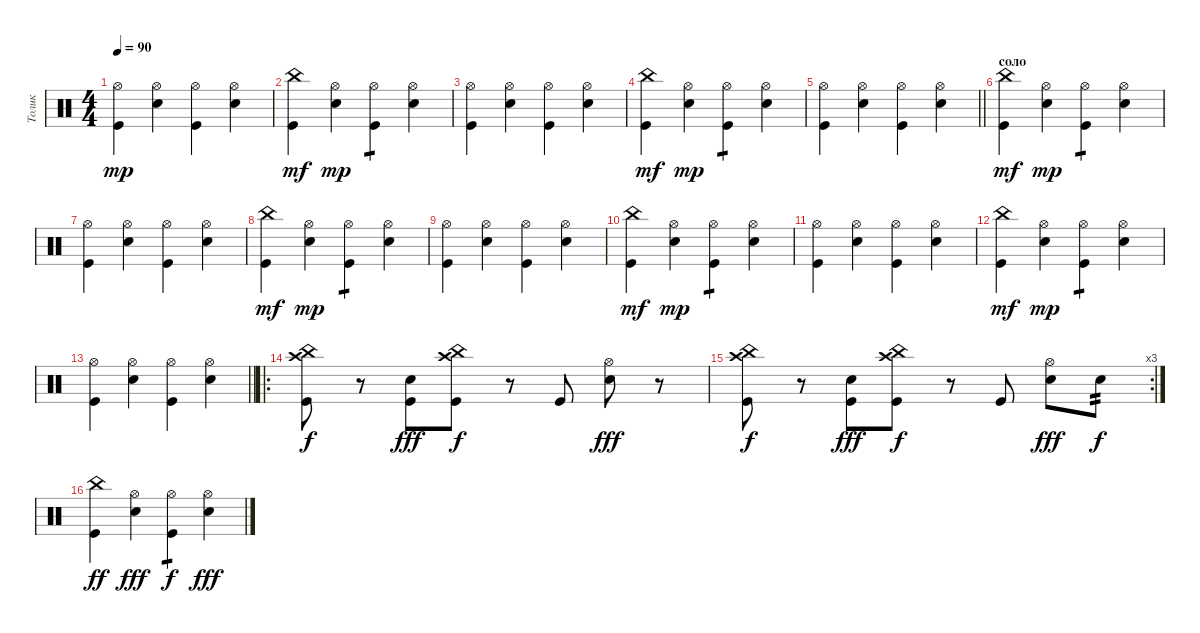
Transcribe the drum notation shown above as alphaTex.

\track ("Толик" "Толик") {instrument percussion}
\staff {score}
\articulation defaults
\ts (4 4)
\tempo 90
\clef neutral
\ks c
("Kick (hit)" "Hi-Hat (open)").4{dy mp} ("Snare (hit) 2" "Hi-Hat (open)").4 ("Kick (hit)" "Hi-Hat (open)").4 ("Snare (hit) 2" "Hi-Hat (open)").4 |
("China (hit)" "Kick (hit)").4{dy mf} ("Snare (hit) 2" "Hi-Hat (open)").4{dy mp} ("Kick (hit)" "Hi-Hat (open)").4{tp 1} ("Snare (hit) 2" "Hi-Hat (open)").4 |
("Kick (hit)" "Hi-Hat (open)").4 ("Snare (hit) 2" "Hi-Hat (open)").4 ("Kick (hit)" "Hi-Hat (open)").4 ("Snare (hit) 2" "Hi-Hat (open)").4 |
("China (hit)" "Kick (hit)").4{dy mf} ("Snare (hit) 2" "Hi-Hat (open)").4{dy mp} ("Kick (hit)" "Hi-Hat (open)").4{tp 1} ("Snare (hit) 2" "Hi-Hat (open)").4 |
\barLineRight lightlight
("Kick (hit)" "Hi-Hat (open)").4 ("Snare (hit) 2" "Hi-Hat (open)").4 ("Kick (hit)" "Hi-Hat (open)").4 ("Snare (hit) 2" "Hi-Hat (open)").4 |
\section ("" "соло")
("China (hit)" "Kick (hit)").4{dy mf} ("Snare (hit) 2" "Hi-Hat (open)").4{dy mp} ("Kick (hit)" "Hi-Hat (open)").4{tp 1} ("Snare (hit) 2" "Hi-Hat (open)").4 |
("Kick (hit)" "Hi-Hat (open)").4 ("Snare (hit) 2" "Hi-Hat (open)").4 ("Kick (hit)" "Hi-Hat (open)").4 ("Snare (hit) 2" "Hi-Hat (open)").4 |
("China (hit)" "Kick (hit)").4{dy mf} ("Snare (hit) 2" "Hi-Hat (open)").4{dy mp} ("Kick (hit)" "Hi-Hat (open)").4{tp 1} ("Snare (hit) 2" "Hi-Hat (open)").4 |
("Kick (hit)" "Hi-Hat (open)").4 ("Snare (hit) 2" "Hi-Hat (open)").4 ("Kick (hit)" "Hi-Hat (open)").4 ("Snare (hit) 2" "Hi-Hat (open)").4 |
("China (hit)" "Kick (hit)").4{dy mf} ("Snare (hit) 2" "Hi-Hat (open)").4{dy mp} ("Kick (hit)" "Hi-Hat (open)").4{tp 1} ("Snare (hit) 2" "Hi-Hat (open)").4 |
("Kick (hit)" "Hi-Hat (open)").4 ("Snare (hit) 2" "Hi-Hat (open)").4 ("Kick (hit)" "Hi-Hat (open)").4 ("Snare (hit) 2" "Hi-Hat (open)").4 |
("China (hit)" "Kick (hit)").4{dy mf} ("Snare (hit) 2" "Hi-Hat (open)").4{dy mp} ("Kick (hit)" "Hi-Hat (open)").4{tp 1} ("Snare (hit) 2" "Hi-Hat (open)").4 |
\barLineRight lightlight
("Kick (hit)" "Hi-Hat (open)").4 ("Snare (hit) 2" "Hi-Hat (open)").4 ("Kick (hit)" "Hi-Hat (open)").4 ("Snare (hit) 2" "Hi-Hat (open)").4 |
\ro
("Crash high (hit)" "Kick (hit)" "China (hit)").8{dy f} r.8 ("Kick (hit)" "Snare (hit) 2").8{dy fff} ("China (hit)" "Crash high (hit)" "Kick (hit)").8{dy f} r.8 "Kick (hit)".8 ("Hi-Hat (open)" "Snare (hit) 2").8{dy fff} r.8 |
\rc 3
("Crash high (hit)" "Kick (hit)" "China (hit)").8{dy f} r.8 ("Kick (hit)" "Snare (hit) 2").8{dy fff} ("China (hit)" "Crash high (hit)" "Kick (hit)").8{dy f} r.8 "Kick (hit)".8 ("Hi-Hat (open)" "Snare (hit) 2").8{dy fff} "Snare (hit) 2".8{tp 2 dy f} |
("China (hit)" "Kick (hit)").4{dy ff} ("Snare (hit) 2" "Hi-Hat (open)").4{dy fff} ("Kick (hit)" "Hi-Hat (open)").4{tp 1 dy f} ("Snare (hit) 2" "Hi-Hat (open)").4{dy fff}
